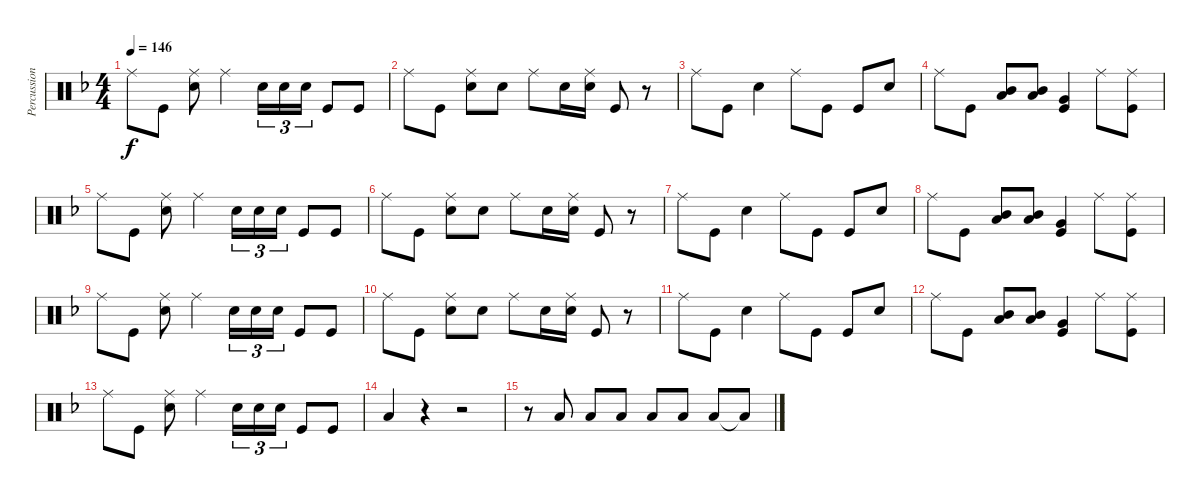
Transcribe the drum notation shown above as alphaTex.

\track ("Percussioni" "Percussion") {instrument percussion}
\staff {score}
\articulation defaults
\ts (4 4)
\tempo 146
\clef neutral
\ks dminor "Ride (middle)".8{dy f} "Kick (hit)".8
("Snare (hit) 2" "Ride (middle)").8 "Ride (middle)".4 "Snare (hit) 2".16{tu (3 2)} "Snare (hit) 2".16{tu (3 2)} "Snare (hit) 2".16{tu (3 2)} "Kick (hit)".8 "Kick (hit)".8 |
"Ride (middle)".8 "Kick (hit)".8 ("Snare (hit) 2" "Ride (middle)").8 "Snare (hit) 2".8 "Ride (middle)".8 "Snare (hit) 2".16 ("Snare (hit) 2" "Ride (middle)").16 "Kick (hit)".8 r.8 |
"Ride (middle)".8 "Kick (hit)".8 "Snare (hit) 2".4 "Ride (middle)".8 "Kick (hit)".8 "Kick (hit)".8 "Snare (hit) 2".8 |
"Ride (middle)".8 "Kick (hit)".8 ("Mid Tom (hit)" "Low Tom (hit)").8 ("Mid Tom (hit)" "Low Tom (hit)").8 ("Kick (hit)" "Very Low Tom (hit)").4 "Ride (middle)".8 ("Kick (hit)" "Ride (middle)").8 |
"Ride (middle)".8 "Kick (hit)".8 ("Snare (hit) 2" "Ride (middle)").8 "Ride (middle)".4 "Snare (hit) 2".16{tu (3 2)} "Snare (hit) 2".16{tu (3 2)} "Snare (hit) 2".16{tu (3 2)} "Kick (hit)".8 "Kick (hit)".8 |
"Ride (middle)".8 "Kick (hit)".8 ("Snare (hit) 2" "Ride (middle)").8 "Snare (hit) 2".8 "Ride (middle)".8 "Snare (hit) 2".16 ("Snare (hit) 2" "Ride (middle)").16 "Kick (hit)".8 r.8 |
"Ride (middle)".8 "Kick (hit)".8 "Snare (hit) 2".4 "Ride (middle)".8 "Kick (hit)".8 "Kick (hit)".8 "Snare (hit) 2".8 |
"Ride (middle)".8 "Kick (hit)".8 ("Mid Tom (hit)" "Low Tom (hit)").8 ("Mid Tom (hit)" "Low Tom (hit)").8 ("Kick (hit)" "Very Low Tom (hit)").4 "Ride (middle)".8 ("Kick (hit)" "Ride (middle)").8 |
"Ride (middle)".8 "Kick (hit)".8 ("Snare (hit) 2" "Ride (middle)").8 "Ride (middle)".4 "Snare (hit) 2".16{tu (3 2)} "Snare (hit) 2".16{tu (3 2)} "Snare (hit) 2".16{tu (3 2)} "Kick (hit)".8 "Kick (hit)".8 |
"Ride (middle)".8 "Kick (hit)".8 ("Snare (hit) 2" "Ride (middle)").8 "Snare (hit) 2".8 "Ride (middle)".8 "Snare (hit) 2".16 ("Snare (hit) 2" "Ride (middle)").16 "Kick (hit)".8 r.8 |
"Ride (middle)".8 "Kick (hit)".8 "Snare (hit) 2".4 "Ride (middle)".8 "Kick (hit)".8 "Kick (hit)".8 "Snare (hit) 2".8 |
"Ride (middle)".8 "Kick (hit)".8 ("Mid Tom (hit)" "Low Tom (hit)").8 ("Mid Tom (hit)" "Low Tom (hit)").8 ("Kick (hit)" "Very Low Tom (hit)").4 "Ride (middle)".8 ("Kick (hit)" "Ride (middle)").8 |
"Ride (middle)".8 "Kick (hit)".8 ("Snare (hit) 2" "Ride (middle)").8 "Ride (middle)".4 "Snare (hit) 2".16{tu (3 2)} "Snare (hit) 2".16{tu (3 2)} "Snare (hit) 2".16{tu (3 2)} "Kick (hit)".8 "Kick (hit)".8 |
"Low Floor Tom (hit)".4 r.4 r.2 |
r.8 "Low Floor Tom (hit)".8 "Low Floor Tom (hit)".8 "Low Floor Tom (hit)".8 "Low Floor Tom (hit)".8 "Low Floor Tom (hit)".8 "Low Floor Tom (hit)".8 "Low Floor Tom (hit)"{t}.8
